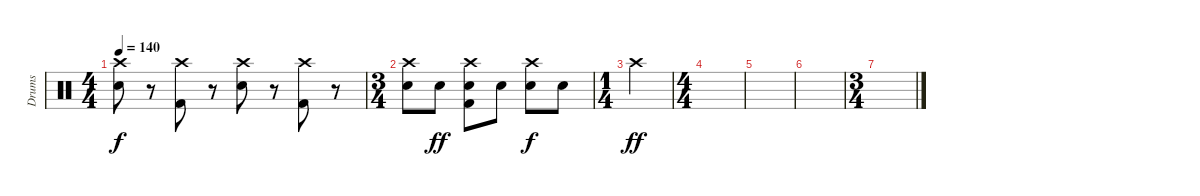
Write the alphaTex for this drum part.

\track ("Drums" "Drums") {instrument percussion}
\staff {score}
\articulation defaults
\ts (4 4)
\tempo 140
\clef neutral
\ks c
("Crash high (hit)" "Electric Snare (hit)").8{dy f} r.8 ("Crash high (hit)" "Kick (hit) 2").8 r.8 ("Crash high (hit)" "Electric Snare (hit)").8 r.8 ("Crash high (hit)" "Kick (hit) 2").8 r.8 |
\ts (3 4)
("Crash high (hit)" "Electric Snare (hit)").8 "Electric Snare (hit)".8{dy ff} ("Crash high (hit)" "Electric Snare (hit)" "Kick (hit) 2").8 "Electric Snare (hit)".8 ("Crash high (hit)" "Electric Snare (hit)").8{dy f} "Electric Snare (hit)".8 |
\ts (1 4)
"Crash high (hit)".4{dy ff} |
\ts (4 4)
|
|
|
\ts (3 4)
